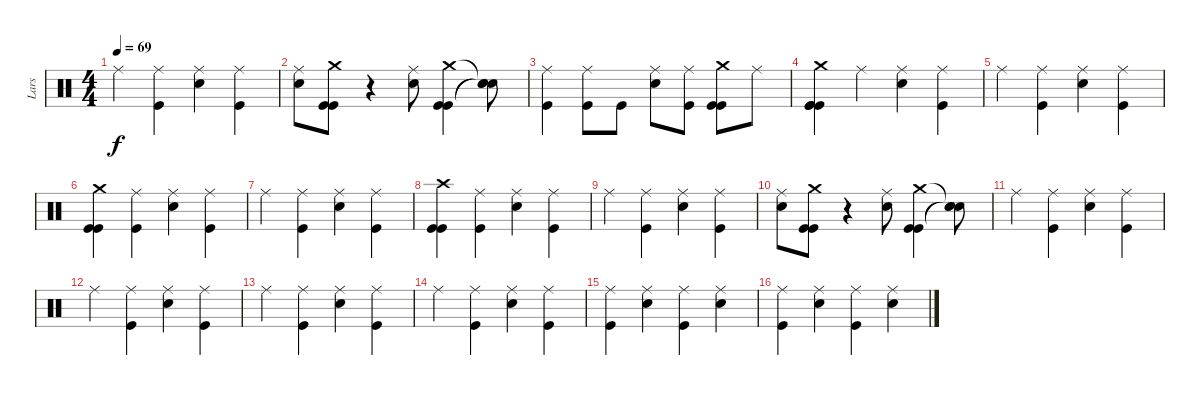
\track ("Lars" "Lars") {instrument percussion}
\staff {score}
\articulation defaults
\ts (4 4)
\tempo 69
\clef neutral
\ks c "Ride (middle)".4{dy f}
("Ride (middle)" "Kick (hit)").4 ("Ride (middle)" "Electric Snare (hit)").4 ("Ride (middle)" "Kick (hit)").4 |
("Ride (middle)" "Electric Snare (hit)").8 ("Kick (hit)" "Kick (hit)" "Crash medium (hit)").8 r.4 ("Ride (middle)" "Electric Snare (hit)").8 ("Kick (hit)" "Kick (hit)" "Crash medium (hit)").4 ("Snare (hit)"{t} "Snare (hit)"{t} "Snare (hit)"{t}).8 |
("Ride (middle)" "Kick (hit)").4 ("Ride (middle)" "Kick (hit)").8 "Kick (hit)".8 ("Ride (middle)" "Electric Snare (hit)").8 ("Ride (middle)" "Kick (hit)").8 ("Kick (hit)" "Kick (hit)" "Crash medium (hit)").8 "Ride (middle)".8 |
("Kick (hit)" "Kick (hit)" "Kick (hit)" "Crash medium (hit)").4 "Ride (middle)".4 ("Ride (middle)" "Electric Snare (hit)").4 ("Ride (middle)" "Kick (hit)").4 |
"Ride (middle)".4 ("Ride (middle)" "Kick (hit)").4 ("Ride (middle)" "Electric Snare (hit)").4 ("Ride (middle)" "Kick (hit)").4 |
("Kick (hit)" "Kick (hit)" "Crash medium (hit)").4 ("Ride (middle)" "Kick (hit)").4 ("Ride (middle)" "Electric Snare (hit)").4 ("Ride (middle)" "Kick (hit)").4 |
"Ride (middle)".4 ("Ride (middle)" "Kick (hit)").4 ("Ride (middle)" "Electric Snare (hit)").4 ("Ride (middle)" "Kick (hit)").4 |
("Kick (hit)" "Kick (hit)" "Crash high (hit)").4 ("Ride (middle)" "Kick (hit)").4 ("Ride (middle)" "Electric Snare (hit)").4 ("Ride (middle)" "Kick (hit)").4 |
"Ride (middle)".4 ("Ride (middle)" "Kick (hit)").4 ("Ride (middle)" "Electric Snare (hit)").4 ("Ride (middle)" "Kick (hit)").4 |
("Ride (middle)" "Electric Snare (hit)").8 ("Kick (hit)" "Kick (hit)" "Crash medium (hit)").8 r.4 ("Ride (middle)" "Electric Snare (hit)").8 ("Kick (hit)" "Kick (hit)" "Crash medium (hit)").4 ("Snare (hit)"{t} "Snare (hit)"{t} "Snare (hit)"{t}).8 |
"Ride (middle)".4 ("Ride (middle)" "Kick (hit)").4 ("Ride (middle)" "Electric Snare (hit)").4 ("Ride (middle)" "Kick (hit)").4 |
"Ride (middle)".4 ("Ride (middle)" "Kick (hit)").4 ("Ride (middle)" "Electric Snare (hit)").4 ("Ride (middle)" "Kick (hit)").4 |
"Ride (middle)".4 ("Ride (middle)" "Kick (hit)").4 ("Ride (middle)" "Electric Snare (hit)").4 ("Ride (middle)" "Kick (hit)").4 |
"Ride (middle)".4 ("Ride (middle)" "Kick (hit)").4 ("Ride (middle)" "Electric Snare (hit)").4 ("Ride (middle)" "Kick (hit)").4 |
("Ride (middle)" "Kick (hit)").4 ("Ride (middle)" "Electric Snare (hit)").4 ("Ride (middle)" "Kick (hit)").4 ("Ride (middle)" "Electric Snare (hit)").4 |
("Ride (middle)" "Kick (hit)").4 ("Ride (middle)" "Electric Snare (hit)").4 ("Ride (middle)" "Kick (hit)").4 ("Ride (middle)" "Electric Snare (hit)").4
